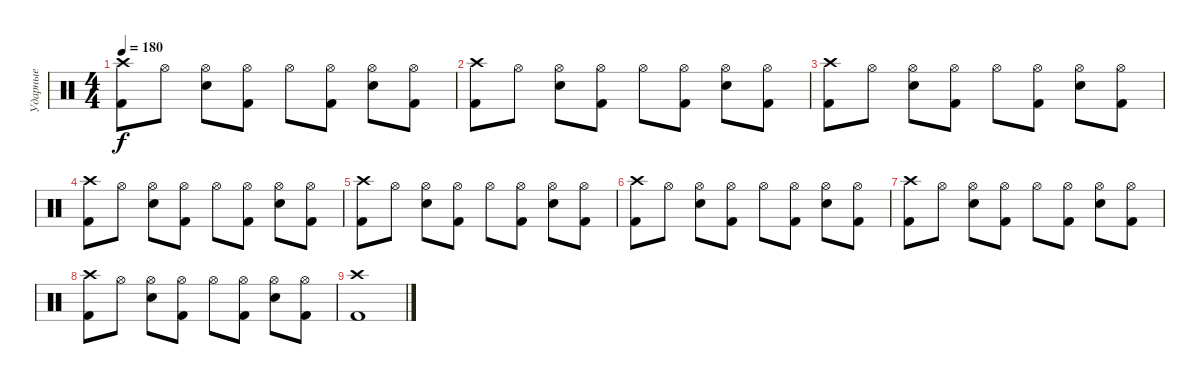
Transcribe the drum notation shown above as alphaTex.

\track ("Ударные" "Ударные") {instrument percussion}
\staff {score}
\articulation defaults
\ts (4 4)
\tempo 180
\clef neutral
\ks c
("Crash high (hit)" "Kick (hit) 2").8{dy f} "Hi-Hat (open)".8 ("Hi-Hat (open)" "Electric Snare (hit)").8 ("Hi-Hat (open)" "Kick (hit) 2").8 "Hi-Hat (open)".8 ("Hi-Hat (open)" "Kick (hit) 2").8 ("Hi-Hat (open)" "Electric Snare (hit)").8 ("Hi-Hat (open)" "Kick (hit) 2").8 |
("Crash high (hit)" "Kick (hit) 2").8 "Hi-Hat (open)".8 ("Hi-Hat (open)" "Electric Snare (hit)").8 ("Hi-Hat (open)" "Kick (hit) 2").8 "Hi-Hat (open)".8 ("Hi-Hat (open)" "Kick (hit) 2").8 ("Hi-Hat (open)" "Electric Snare (hit)").8 ("Hi-Hat (open)" "Kick (hit) 2").8 |
("Crash high (hit)" "Kick (hit) 2").8 "Hi-Hat (open)".8 ("Hi-Hat (open)" "Electric Snare (hit)").8 ("Hi-Hat (open)" "Kick (hit) 2").8 "Hi-Hat (open)".8 ("Hi-Hat (open)" "Kick (hit) 2").8 ("Hi-Hat (open)" "Electric Snare (hit)").8 ("Hi-Hat (open)" "Kick (hit) 2").8 |
("Crash high (hit)" "Kick (hit) 2").8 "Hi-Hat (open)".8 ("Hi-Hat (open)" "Electric Snare (hit)").8 ("Hi-Hat (open)" "Kick (hit) 2").8 "Hi-Hat (open)".8 ("Hi-Hat (open)" "Kick (hit) 2").8 ("Hi-Hat (open)" "Electric Snare (hit)").8 ("Hi-Hat (open)" "Kick (hit) 2").8 |
("Crash high (hit)" "Kick (hit) 2").8 "Hi-Hat (open)".8 ("Hi-Hat (open)" "Electric Snare (hit)").8 ("Hi-Hat (open)" "Kick (hit) 2").8 "Hi-Hat (open)".8 ("Hi-Hat (open)" "Kick (hit) 2").8 ("Hi-Hat (open)" "Electric Snare (hit)").8 ("Hi-Hat (open)" "Kick (hit) 2").8 |
("Crash high (hit)" "Kick (hit) 2").8 "Hi-Hat (open)".8 ("Hi-Hat (open)" "Electric Snare (hit)").8 ("Hi-Hat (open)" "Kick (hit) 2").8 "Hi-Hat (open)".8 ("Hi-Hat (open)" "Kick (hit) 2").8 ("Hi-Hat (open)" "Electric Snare (hit)").8 ("Hi-Hat (open)" "Kick (hit) 2").8 |
("Crash high (hit)" "Kick (hit) 2").8 "Hi-Hat (open)".8 ("Hi-Hat (open)" "Electric Snare (hit)").8 ("Hi-Hat (open)" "Kick (hit) 2").8 "Hi-Hat (open)".8 ("Hi-Hat (open)" "Kick (hit) 2").8 ("Hi-Hat (open)" "Electric Snare (hit)").8 ("Hi-Hat (open)" "Kick (hit) 2").8 |
("Crash high (hit)" "Kick (hit) 2").8 "Hi-Hat (open)".8 ("Hi-Hat (open)" "Electric Snare (hit)").8 ("Hi-Hat (open)" "Kick (hit) 2").8 "Hi-Hat (open)".8 ("Hi-Hat (open)" "Kick (hit) 2").8 ("Hi-Hat (open)" "Electric Snare (hit)").8 ("Hi-Hat (open)" "Kick (hit) 2").8 |
("Crash high (hit)" "Kick (hit) 2").1
